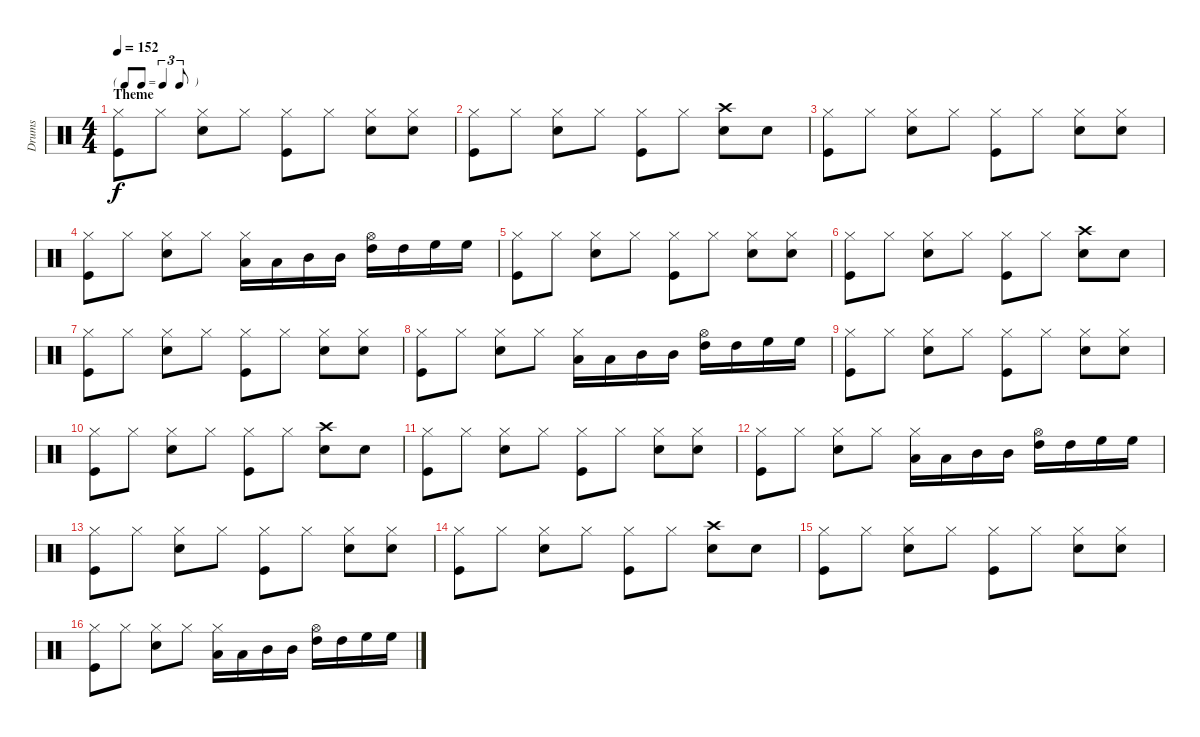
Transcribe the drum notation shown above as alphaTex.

\track ("Drums" "Drums") {instrument percussion}
\staff {score}
\articulation defaults
\ts (4 4)
\tf triplet8th
\section ("" "Theme")
\tempo 152
\clef neutral
\ks c
("Hi-Hat (closed)" "Kick (hit)").8{dy f} "Hi-Hat (closed)".8 ("Hi-Hat (closed)" "Snare (hit) 2").8 "Hi-Hat (closed)".8 ("Hi-Hat (closed)" "Kick (hit)").8 "Hi-Hat (closed)".8 ("Hi-Hat (closed)" "Snare (hit) 2").8 ("Hi-Hat (closed)" "Snare (hit) 2").8 |
("Hi-Hat (closed)" "Kick (hit)").8 "Hi-Hat (closed)".8 ("Hi-Hat (closed)" "Snare (hit) 2").8 "Hi-Hat (closed)".8 ("Hi-Hat (closed)" "Kick (hit)").8 "Hi-Hat (closed)".8 ("Crash high (hit)" "Snare (hit) 2").8 "Snare (hit) 2".8 |
("Hi-Hat (closed)" "Kick (hit)").8 "Hi-Hat (closed)".8 ("Hi-Hat (closed)" "Snare (hit) 2").8 "Hi-Hat (closed)".8 ("Hi-Hat (closed)" "Kick (hit)").8 "Hi-Hat (closed)".8 ("Hi-Hat (closed)" "Snare (hit) 2").8 ("Hi-Hat (closed)" "Snare (hit) 2").8 |
("Hi-Hat (closed)" "Kick (hit)").8 "Hi-Hat (closed)".8 ("Hi-Hat (closed)" "Snare (hit) 2").8 "Hi-Hat (closed)".8 ("Hi-Hat (closed)" "Low Tom (hit)").16 "Low Tom (hit)".16 "Mid Tom (hit)".16 "Mid Tom (hit)".16 ("Hi-Hat (open)" "High Tom (hit)").16 "High Tom (hit)".16 "High Floor Tom (hit)".16 "High Floor Tom (hit)".16 |
("Hi-Hat (closed)" "Kick (hit)").8 "Hi-Hat (closed)".8 ("Hi-Hat (closed)" "Snare (hit) 2").8 "Hi-Hat (closed)".8 ("Hi-Hat (closed)" "Kick (hit)").8 "Hi-Hat (closed)".8 ("Hi-Hat (closed)" "Snare (hit) 2").8 ("Hi-Hat (closed)" "Snare (hit) 2").8 |
("Hi-Hat (closed)" "Kick (hit)").8 "Hi-Hat (closed)".8 ("Hi-Hat (closed)" "Snare (hit) 2").8 "Hi-Hat (closed)".8 ("Hi-Hat (closed)" "Kick (hit)").8 "Hi-Hat (closed)".8 ("Crash high (hit)" "Snare (hit) 2").8 "Snare (hit) 2".8 |
("Hi-Hat (closed)" "Kick (hit)").8 "Hi-Hat (closed)".8 ("Hi-Hat (closed)" "Snare (hit) 2").8 "Hi-Hat (closed)".8 ("Hi-Hat (closed)" "Kick (hit)").8 "Hi-Hat (closed)".8 ("Hi-Hat (closed)" "Snare (hit) 2").8 ("Hi-Hat (closed)" "Snare (hit) 2").8 |
("Hi-Hat (closed)" "Kick (hit)").8 "Hi-Hat (closed)".8 ("Hi-Hat (closed)" "Snare (hit) 2").8 "Hi-Hat (closed)".8 ("Hi-Hat (closed)" "Low Tom (hit)").16 "Low Tom (hit)".16 "Mid Tom (hit)".16 "Mid Tom (hit)".16 ("Hi-Hat (open)" "High Tom (hit)").16 "High Tom (hit)".16 "High Floor Tom (hit)".16 "High Floor Tom (hit)".16 |
("Hi-Hat (closed)" "Kick (hit)").8 "Hi-Hat (closed)".8 ("Hi-Hat (closed)" "Snare (hit) 2").8 "Hi-Hat (closed)".8 ("Hi-Hat (closed)" "Kick (hit)").8 "Hi-Hat (closed)".8 ("Hi-Hat (closed)" "Snare (hit) 2").8 ("Hi-Hat (closed)" "Snare (hit) 2").8 |
("Hi-Hat (closed)" "Kick (hit)").8 "Hi-Hat (closed)".8 ("Hi-Hat (closed)" "Snare (hit) 2").8 "Hi-Hat (closed)".8 ("Hi-Hat (closed)" "Kick (hit)").8 "Hi-Hat (closed)".8 ("Crash high (hit)" "Snare (hit) 2").8 "Snare (hit) 2".8 |
("Hi-Hat (closed)" "Kick (hit)").8 "Hi-Hat (closed)".8 ("Hi-Hat (closed)" "Snare (hit) 2").8 "Hi-Hat (closed)".8 ("Hi-Hat (closed)" "Kick (hit)").8 "Hi-Hat (closed)".8 ("Hi-Hat (closed)" "Snare (hit) 2").8 ("Hi-Hat (closed)" "Snare (hit) 2").8 |
("Hi-Hat (closed)" "Kick (hit)").8 "Hi-Hat (closed)".8 ("Hi-Hat (closed)" "Snare (hit) 2").8 "Hi-Hat (closed)".8 ("Hi-Hat (closed)" "Low Tom (hit)").16 "Low Tom (hit)".16 "Mid Tom (hit)".16 "Mid Tom (hit)".16 ("Hi-Hat (open)" "High Tom (hit)").16 "High Tom (hit)".16 "High Floor Tom (hit)".16 "High Floor Tom (hit)".16 |
("Hi-Hat (closed)" "Kick (hit)").8 "Hi-Hat (closed)".8 ("Hi-Hat (closed)" "Snare (hit) 2").8 "Hi-Hat (closed)".8 ("Hi-Hat (closed)" "Kick (hit)").8 "Hi-Hat (closed)".8 ("Hi-Hat (closed)" "Snare (hit) 2").8 ("Hi-Hat (closed)" "Snare (hit) 2").8 |
("Hi-Hat (closed)" "Kick (hit)").8 "Hi-Hat (closed)".8 ("Hi-Hat (closed)" "Snare (hit) 2").8 "Hi-Hat (closed)".8 ("Hi-Hat (closed)" "Kick (hit)").8 "Hi-Hat (closed)".8 ("Crash high (hit)" "Snare (hit) 2").8 "Snare (hit) 2".8 |
("Hi-Hat (closed)" "Kick (hit)").8 "Hi-Hat (closed)".8 ("Hi-Hat (closed)" "Snare (hit) 2").8 "Hi-Hat (closed)".8 ("Hi-Hat (closed)" "Kick (hit)").8 "Hi-Hat (closed)".8 ("Hi-Hat (closed)" "Snare (hit) 2").8 ("Hi-Hat (closed)" "Snare (hit) 2").8 |
("Hi-Hat (closed)" "Kick (hit)").8 "Hi-Hat (closed)".8 ("Hi-Hat (closed)" "Snare (hit) 2").8 "Hi-Hat (closed)".8 ("Hi-Hat (closed)" "Low Tom (hit)").16 "Low Tom (hit)".16 "Mid Tom (hit)".16 "Mid Tom (hit)".16 ("Hi-Hat (open)" "High Tom (hit)").16 "High Tom (hit)".16 "High Floor Tom (hit)".16 "High Floor Tom (hit)".16
